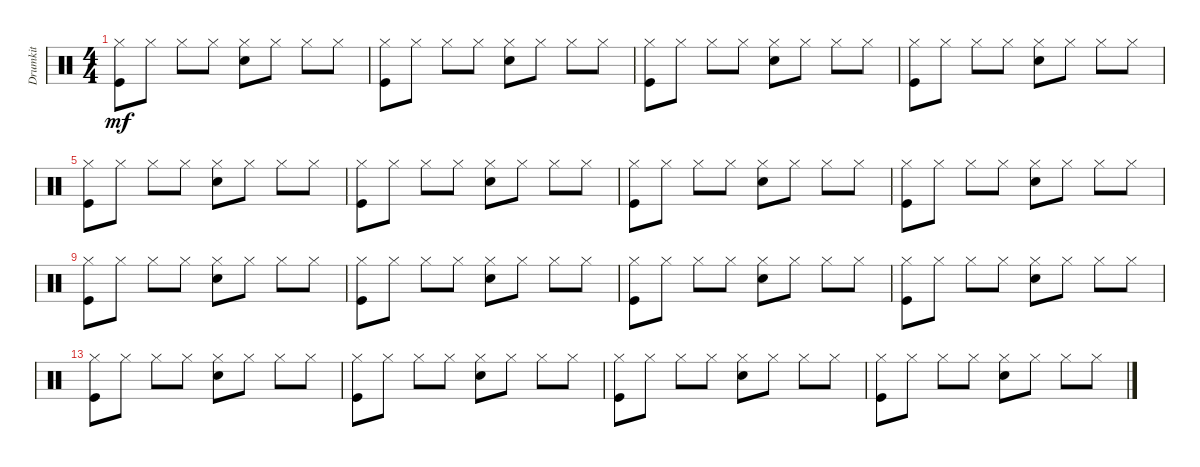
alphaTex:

\bracketExtendMode groupsimilarinstruments
\multiTrackTrackNamePolicy hidden
\firstSystemTrackNameMode fullname
\otherSystemsTrackNameMode fullname
\otherSystemsTrackNameOrientation horizontal
\defaultBarNumberDisplay FirstOfSystem
\track ("Drumkit" "Drums") {multiBarRest instrument percussion}
\staff {score}
\articulation defaults
\ts (4 4)
\tempo (150 hide)
\clef neutral
\ks c
("Hi-Hat (closed)" "Kick (hit)").8{dy mf} "Hi-Hat (closed)".8 "Hi-Hat (closed)".8 "Hi-Hat (closed)".8 ("Hi-Hat (closed)" "Snare (hit) 2").8 "Hi-Hat (closed)".8 "Hi-Hat (closed)".8 "Hi-Hat (closed)".8 |
("Hi-Hat (closed)" "Kick (hit)").8 "Hi-Hat (closed)".8 "Hi-Hat (closed)".8 "Hi-Hat (closed)".8 ("Hi-Hat (closed)" "Snare (hit) 2").8 "Hi-Hat (closed)".8 "Hi-Hat (closed)".8 "Hi-Hat (closed)".8 |
("Hi-Hat (closed)" "Kick (hit)").8 "Hi-Hat (closed)".8 "Hi-Hat (closed)".8 "Hi-Hat (closed)".8 ("Hi-Hat (closed)" "Snare (hit) 2").8 "Hi-Hat (closed)".8 "Hi-Hat (closed)".8 "Hi-Hat (closed)".8 |
("Hi-Hat (closed)" "Kick (hit)").8 "Hi-Hat (closed)".8 "Hi-Hat (closed)".8 "Hi-Hat (closed)".8 ("Hi-Hat (closed)" "Snare (hit) 2").8 "Hi-Hat (closed)".8 "Hi-Hat (closed)".8 "Hi-Hat (closed)".8 |
("Hi-Hat (closed)" "Kick (hit)").8 "Hi-Hat (closed)".8 "Hi-Hat (closed)".8 "Hi-Hat (closed)".8 ("Hi-Hat (closed)" "Snare (hit) 2").8 "Hi-Hat (closed)".8 "Hi-Hat (closed)".8 "Hi-Hat (closed)".8 |
("Hi-Hat (closed)" "Kick (hit)").8 "Hi-Hat (closed)".8 "Hi-Hat (closed)".8 "Hi-Hat (closed)".8 ("Hi-Hat (closed)" "Snare (hit) 2").8 "Hi-Hat (closed)".8 "Hi-Hat (closed)".8 "Hi-Hat (closed)".8 |
("Hi-Hat (closed)" "Kick (hit)").8 "Hi-Hat (closed)".8 "Hi-Hat (closed)".8 "Hi-Hat (closed)".8 ("Hi-Hat (closed)" "Snare (hit) 2").8 "Hi-Hat (closed)".8 "Hi-Hat (closed)".8 "Hi-Hat (closed)".8 |
("Hi-Hat (closed)" "Kick (hit)").8 "Hi-Hat (closed)".8 "Hi-Hat (closed)".8 "Hi-Hat (closed)".8 ("Hi-Hat (closed)" "Snare (hit) 2").8 "Hi-Hat (closed)".8 "Hi-Hat (closed)".8 "Hi-Hat (closed)".8 |
("Hi-Hat (closed)" "Kick (hit)").8 "Hi-Hat (closed)".8 "Hi-Hat (closed)".8 "Hi-Hat (closed)".8 ("Hi-Hat (closed)" "Snare (hit) 2").8 "Hi-Hat (closed)".8 "Hi-Hat (closed)".8 "Hi-Hat (closed)".8 |
("Hi-Hat (closed)" "Kick (hit)").8 "Hi-Hat (closed)".8 "Hi-Hat (closed)".8 "Hi-Hat (closed)".8 ("Hi-Hat (closed)" "Snare (hit) 2").8 "Hi-Hat (closed)".8 "Hi-Hat (closed)".8 "Hi-Hat (closed)".8 |
("Hi-Hat (closed)" "Kick (hit)").8 "Hi-Hat (closed)".8 "Hi-Hat (closed)".8 "Hi-Hat (closed)".8 ("Hi-Hat (closed)" "Snare (hit) 2").8 "Hi-Hat (closed)".8 "Hi-Hat (closed)".8 "Hi-Hat (closed)".8 |
("Hi-Hat (closed)" "Kick (hit)").8 "Hi-Hat (closed)".8 "Hi-Hat (closed)".8 "Hi-Hat (closed)".8 ("Hi-Hat (closed)" "Snare (hit) 2").8 "Hi-Hat (closed)".8 "Hi-Hat (closed)".8 "Hi-Hat (closed)".8 |
("Hi-Hat (closed)" "Kick (hit)").8 "Hi-Hat (closed)".8 "Hi-Hat (closed)".8 "Hi-Hat (closed)".8 ("Hi-Hat (closed)" "Snare (hit) 2").8 "Hi-Hat (closed)".8 "Hi-Hat (closed)".8 "Hi-Hat (closed)".8 |
("Hi-Hat (closed)" "Kick (hit)").8 "Hi-Hat (closed)".8 "Hi-Hat (closed)".8 "Hi-Hat (closed)".8 ("Hi-Hat (closed)" "Snare (hit) 2").8 "Hi-Hat (closed)".8 "Hi-Hat (closed)".8 "Hi-Hat (closed)".8 |
("Hi-Hat (closed)" "Kick (hit)").8 "Hi-Hat (closed)".8 "Hi-Hat (closed)".8 "Hi-Hat (closed)".8 ("Hi-Hat (closed)" "Snare (hit) 2").8 "Hi-Hat (closed)".8 "Hi-Hat (closed)".8 "Hi-Hat (closed)".8 |
("Hi-Hat (closed)" "Kick (hit)").8 "Hi-Hat (closed)".8 "Hi-Hat (closed)".8 "Hi-Hat (closed)".8 ("Hi-Hat (closed)" "Snare (hit) 2").8 "Hi-Hat (closed)".8 "Hi-Hat (closed)".8 "Hi-Hat (closed)".8
